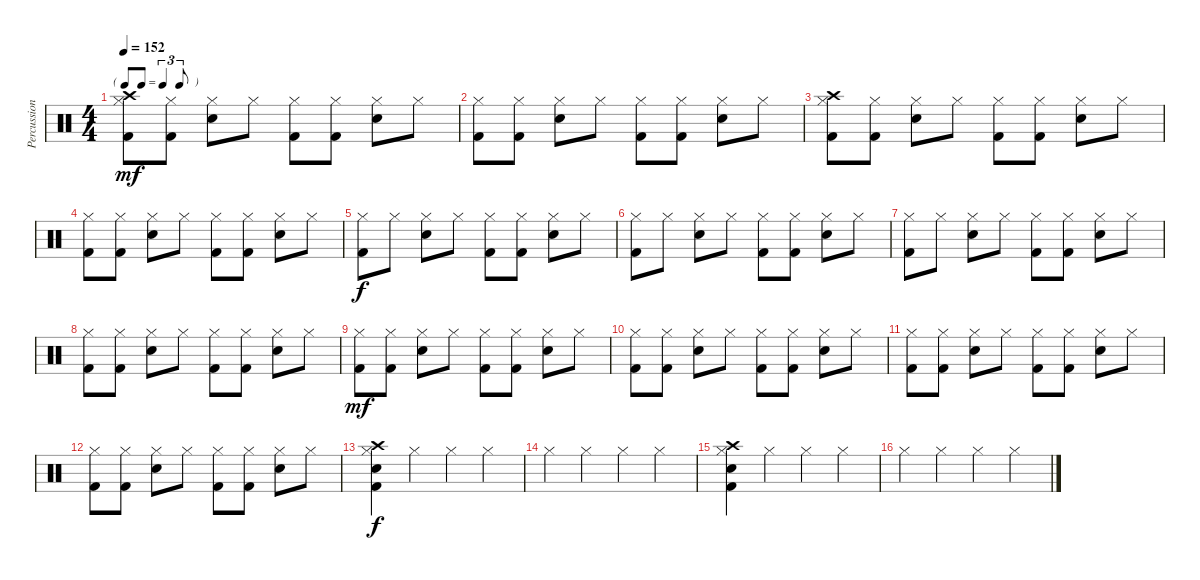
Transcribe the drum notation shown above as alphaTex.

\track ("Percussion" "Percussion") {instrument percussion}
\staff {score}
\articulation defaults
\ts (4 4)
\tf triplet8th
\tempo 152
\clef neutral
\ks c
("Crash high (hit)" "Hi-Hat (closed)" "Kick (hit) 2").8{dy mf} ("Hi-Hat (closed)" "Kick (hit) 2").8 ("Hi-Hat (closed)" "Electric Snare (hit)").8 "Hi-Hat (closed)".8 ("Hi-Hat (closed)" "Kick (hit) 2").8 ("Hi-Hat (closed)" "Kick (hit) 2").8 ("Hi-Hat (closed)" "Electric Snare (hit)").8 "Hi-Hat (closed)".8 |
("Hi-Hat (closed)" "Kick (hit) 2").8 ("Hi-Hat (closed)" "Kick (hit) 2").8 ("Hi-Hat (closed)" "Electric Snare (hit)").8 "Hi-Hat (closed)".8 ("Hi-Hat (closed)" "Kick (hit) 2").8 ("Hi-Hat (closed)" "Kick (hit) 2").8 ("Hi-Hat (closed)" "Electric Snare (hit)").8 "Hi-Hat (closed)".8 |
("Crash high (hit)" "Hi-Hat (closed)" "Kick (hit) 2").8 ("Hi-Hat (closed)" "Kick (hit) 2").8 ("Hi-Hat (closed)" "Electric Snare (hit)").8 "Hi-Hat (closed)".8 ("Hi-Hat (closed)" "Kick (hit) 2").8 ("Hi-Hat (closed)" "Kick (hit) 2").8 ("Hi-Hat (closed)" "Electric Snare (hit)").8 "Hi-Hat (closed)".8 |
("Hi-Hat (closed)" "Kick (hit) 2").8 ("Hi-Hat (closed)" "Kick (hit) 2").8 ("Hi-Hat (closed)" "Electric Snare (hit)").8 "Hi-Hat (closed)".8 ("Hi-Hat (closed)" "Kick (hit) 2").8 ("Hi-Hat (closed)" "Kick (hit) 2").8 ("Hi-Hat (closed)" "Electric Snare (hit)").8 "Hi-Hat (closed)".8 |
("Hi-Hat (closed)" "Kick (hit) 2").8{dy f} "Hi-Hat (closed)".8 ("Hi-Hat (closed)" "Electric Snare (hit)").8 "Hi-Hat (closed)".8 ("Hi-Hat (closed)" "Kick (hit) 2").8 ("Hi-Hat (closed)" "Kick (hit) 2").8 ("Hi-Hat (closed)" "Electric Snare (hit)").8 "Hi-Hat (closed)".8 |
("Hi-Hat (closed)" "Kick (hit) 2").8 "Hi-Hat (closed)".8 ("Hi-Hat (closed)" "Electric Snare (hit)").8 "Hi-Hat (closed)".8 ("Hi-Hat (closed)" "Kick (hit) 2").8 ("Hi-Hat (closed)" "Kick (hit) 2").8 ("Hi-Hat (closed)" "Electric Snare (hit)").8 "Hi-Hat (closed)".8 |
("Hi-Hat (closed)" "Kick (hit) 2").8 "Hi-Hat (closed)".8 ("Hi-Hat (closed)" "Electric Snare (hit)").8 "Hi-Hat (closed)".8 ("Hi-Hat (closed)" "Kick (hit) 2").8 ("Hi-Hat (closed)" "Kick (hit) 2").8 ("Hi-Hat (closed)" "Electric Snare (hit)").8 "Hi-Hat (closed)".8 |
("Hi-Hat (closed)" "Kick (hit) 2").8 ("Hi-Hat (closed)" "Kick (hit) 2").8 ("Hi-Hat (closed)" "Electric Snare (hit)").8 "Hi-Hat (closed)".8 ("Hi-Hat (closed)" "Kick (hit) 2").8 ("Hi-Hat (closed)" "Kick (hit) 2").8 ("Hi-Hat (closed)" "Electric Snare (hit)").8 "Hi-Hat (closed)".8 |
("Hi-Hat (closed)" "Kick (hit) 2").8{dy mf} ("Hi-Hat (closed)" "Kick (hit) 2").8 ("Hi-Hat (closed)" "Electric Snare (hit)").8 "Hi-Hat (closed)".8 ("Hi-Hat (closed)" "Kick (hit) 2").8 ("Hi-Hat (closed)" "Kick (hit) 2").8 ("Hi-Hat (closed)" "Electric Snare (hit)").8 "Hi-Hat (closed)".8 |
("Hi-Hat (closed)" "Kick (hit) 2").8 ("Hi-Hat (closed)" "Kick (hit) 2").8 ("Hi-Hat (closed)" "Electric Snare (hit)").8 "Hi-Hat (closed)".8 ("Hi-Hat (closed)" "Kick (hit) 2").8 ("Hi-Hat (closed)" "Kick (hit) 2").8 ("Hi-Hat (closed)" "Electric Snare (hit)").8 "Hi-Hat (closed)".8 |
("Hi-Hat (closed)" "Kick (hit) 2").8 ("Hi-Hat (closed)" "Kick (hit) 2").8 ("Hi-Hat (closed)" "Electric Snare (hit)").8 "Hi-Hat (closed)".8 ("Hi-Hat (closed)" "Kick (hit) 2").8 ("Hi-Hat (closed)" "Kick (hit) 2").8 ("Hi-Hat (closed)" "Electric Snare (hit)").8 "Hi-Hat (closed)".8 |
("Hi-Hat (closed)" "Kick (hit) 2").8 ("Hi-Hat (closed)" "Kick (hit) 2").8 ("Hi-Hat (closed)" "Electric Snare (hit)").8 "Hi-Hat (closed)".8 ("Hi-Hat (closed)" "Kick (hit) 2").8 ("Hi-Hat (closed)" "Kick (hit) 2").8 ("Hi-Hat (closed)" "Electric Snare (hit)").8 "Hi-Hat (closed)".8 |
("Crash high (hit)" "Hi-Hat (closed)" "Electric Snare (hit)" "Kick (hit) 2").4{dy f} "Hi-Hat (closed)".4 "Hi-Hat (closed)".4 "Hi-Hat (closed)".4 |
"Hi-Hat (closed)".4 "Hi-Hat (closed)".4 "Hi-Hat (closed)".4 "Hi-Hat (closed)".4 |
("Crash high (hit)" "Hi-Hat (closed)" "Electric Snare (hit)" "Kick (hit) 2").4 "Hi-Hat (closed)".4 "Hi-Hat (closed)".4 "Hi-Hat (closed)".4 |
"Hi-Hat (closed)".4 "Hi-Hat (closed)".4 "Hi-Hat (closed)".4 "Hi-Hat (closed)".4
